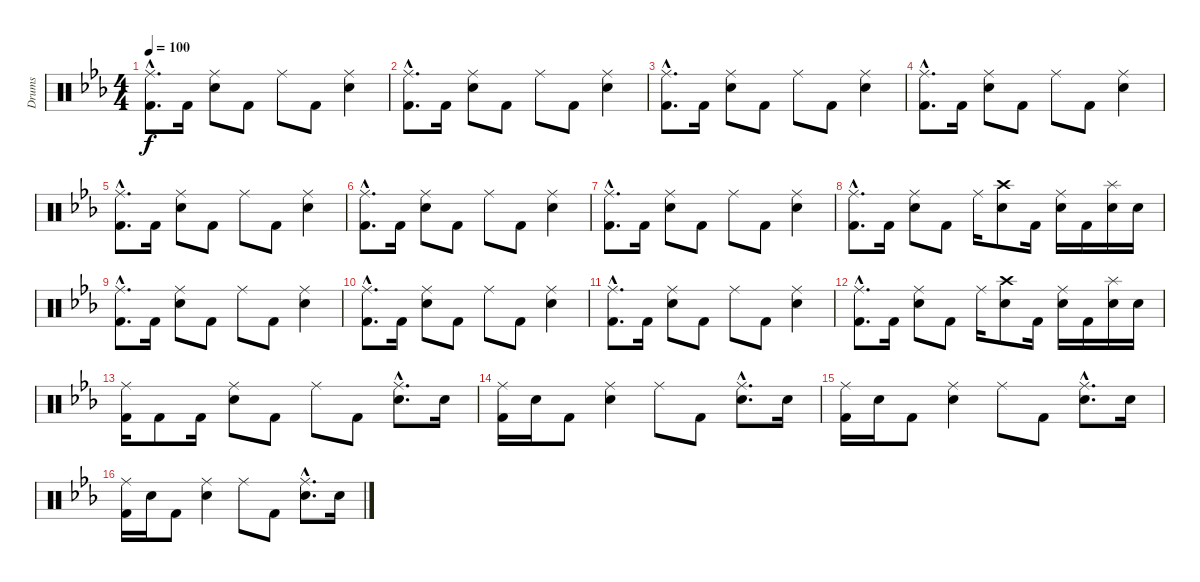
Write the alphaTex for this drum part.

\track ("Drums" "Drums") {instrument percussion}
\staff {score}
\articulation defaults
\ts (4 4)
\tempo 100
\clef neutral
\ks cminor
("Ride (middle)"{hac} "Kick (hit) 2"{hac}).8{d dy f} "Kick (hit) 2".16 ("Ride (middle)" "Electric Snare (hit)").8 "Kick (hit) 2".8 "Ride (middle)".8 "Kick (hit) 2".8 ("Ride (middle)" "Electric Snare (hit)").4 |
("Ride (middle)"{hac} "Kick (hit) 2"{hac}).8{d} "Kick (hit) 2".16 ("Ride (middle)" "Electric Snare (hit)").8 "Kick (hit) 2".8 "Ride (middle)".8 "Kick (hit) 2".8 ("Ride (middle)" "Electric Snare (hit)").4 |
("Ride (middle)"{hac} "Kick (hit) 2"{hac}).8{d} "Kick (hit) 2".16 ("Ride (middle)" "Electric Snare (hit)").8 "Kick (hit) 2".8 "Ride (middle)".8 "Kick (hit) 2".8 ("Ride (middle)" "Electric Snare (hit)").4 |
("Ride (middle)"{hac} "Kick (hit) 2"{hac}).8{d} "Kick (hit) 2".16 ("Ride (middle)" "Electric Snare (hit)").8 "Kick (hit) 2".8 "Ride (middle)".8 "Kick (hit) 2".8 ("Ride (middle)" "Electric Snare (hit)").4 |
("Ride (middle)"{hac} "Kick (hit) 2"{hac}).8{d} "Kick (hit) 2".16 ("Ride (middle)" "Electric Snare (hit)").8 "Kick (hit) 2".8 "Ride (middle)".8 "Kick (hit) 2".8 ("Ride (middle)" "Electric Snare (hit)").4 |
("Ride (middle)"{hac} "Kick (hit) 2"{hac}).8{d} "Kick (hit) 2".16 ("Ride (middle)" "Electric Snare (hit)").8 "Kick (hit) 2".8 "Ride (middle)".8 "Kick (hit) 2".8 ("Ride (middle)" "Electric Snare (hit)").4 |
("Ride (middle)"{hac} "Kick (hit) 2"{hac}).8{d} "Kick (hit) 2".16 ("Ride (middle)" "Electric Snare (hit)").8 "Kick (hit) 2".8 "Ride (middle)".8 "Kick (hit) 2".8 ("Ride (middle)" "Electric Snare (hit)").4 |
("Ride (middle)"{hac} "Kick (hit) 2"{hac}).8{d} "Kick (hit) 2".16 ("Ride (middle)" "Electric Snare (hit)").8 "Kick (hit) 2".8 "Ride (middle)".16 ("Crash high (hit)" "Electric Snare (hit)").8 "Kick (hit) 2".16 ("Ride (middle)" "Electric Snare (hit)").16 "Kick (hit) 2".16 ("Splash (hit)" "Electric Snare (hit)").16 "Electric Snare (hit)".16 |
("Ride (middle)"{hac} "Kick (hit) 2"{hac}).8{d} "Kick (hit) 2".16 ("Ride (middle)" "Electric Snare (hit)").8 "Kick (hit) 2".8 "Ride (middle)".8 "Kick (hit) 2".8 ("Ride (middle)" "Electric Snare (hit)").4 |
("Ride (middle)"{hac} "Kick (hit) 2"{hac}).8{d} "Kick (hit) 2".16 ("Ride (middle)" "Electric Snare (hit)").8 "Kick (hit) 2".8 "Ride (middle)".8 "Kick (hit) 2".8 ("Ride (middle)" "Electric Snare (hit)").4 |
("Ride (middle)"{hac} "Kick (hit) 2"{hac}).8{d} "Kick (hit) 2".16 ("Ride (middle)" "Electric Snare (hit)").8 "Kick (hit) 2".8 "Ride (middle)".8 "Kick (hit) 2".8 ("Ride (middle)" "Electric Snare (hit)").4 |
("Ride (middle)"{hac} "Kick (hit) 2"{hac}).8{d} "Kick (hit) 2".16 ("Ride (middle)" "Electric Snare (hit)").8 "Kick (hit) 2".8 "Ride (middle)".16 ("Crash high (hit)" "Electric Snare (hit)").8 "Kick (hit) 2".16 ("Ride (middle)" "Electric Snare (hit)").16 "Kick (hit) 2".16 ("Splash (hit)" "Electric Snare (hit)").16 "Electric Snare (hit)".16 |
("Ride (middle)" "Kick (hit) 2").16 "Kick (hit) 2".8 "Kick (hit) 2".16 ("Ride (middle)" "Electric Snare (hit)").8 "Kick (hit) 2".8 "Ride (middle)".8 "Kick (hit) 2".8 ("Ride (middle)"{hac} "Electric Snare (hit)"{hac}).8{d} "Electric Snare (hit)".16 |
("Ride (middle)" "Kick (hit) 2").16 "Electric Snare (hit)".16 "Kick (hit) 2".8 ("Ride (middle)" "Electric Snare (hit)").4 "Ride (middle)".8 "Kick (hit) 2".8 ("Ride (middle)"{hac} "Electric Snare (hit)"{hac}).8{d} "Electric Snare (hit)".16 |
("Ride (middle)" "Kick (hit) 2").16 "Electric Snare (hit)".16 "Kick (hit) 2".8 ("Ride (middle)" "Electric Snare (hit)").4 "Ride (middle)".8 "Kick (hit) 2".8 ("Ride (middle)"{hac} "Electric Snare (hit)"{hac}).8{d} "Electric Snare (hit)".16 |
("Ride (middle)" "Kick (hit) 2").16 "Electric Snare (hit)".16 "Kick (hit) 2".8 ("Ride (middle)" "Electric Snare (hit)").4 "Ride (middle)".8 "Kick (hit) 2".8 ("Ride (middle)"{hac} "Electric Snare (hit)"{hac}).8{d} "Electric Snare (hit)".16
